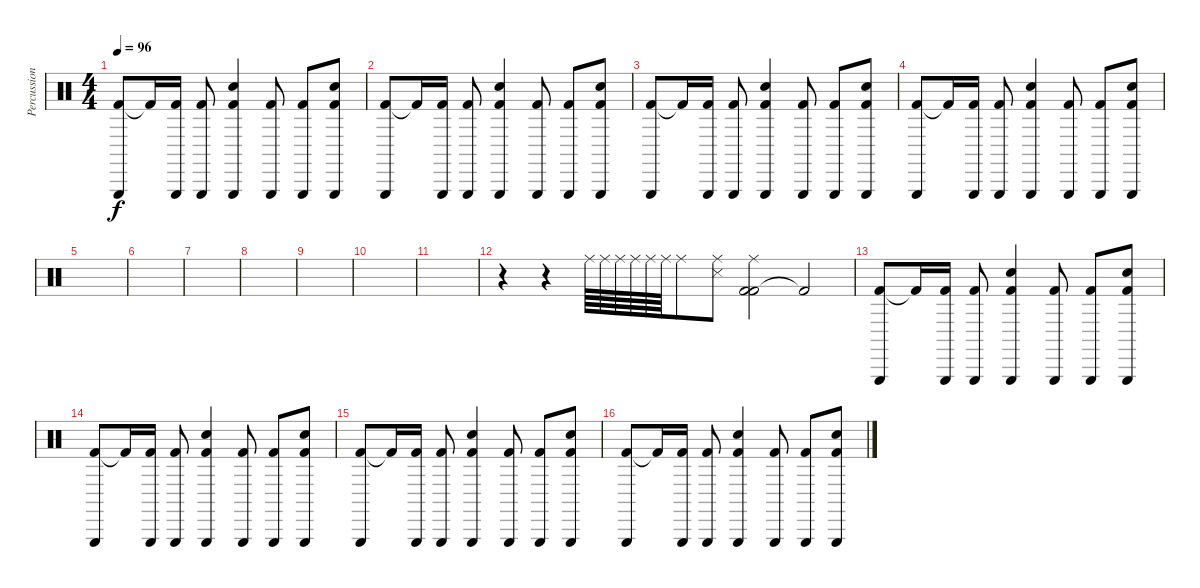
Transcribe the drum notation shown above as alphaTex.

\track ("Percussion 2" "Percussion") {instrument percussion}
\staff {score}
\articulation defaults
\ts (4 4)
\tempo 96
\clef neutral
\ks c
("Kick (hit) 2" "Triangle (hit)").8{dy f} "Kick (hit) 2"{t}.16 ("Kick (hit) 2" "Triangle (hit)").16 ("Kick (hit) 2" "Triangle (hit)").8 ("Kick (hit) 2" "Snare (hit) 2" "Triangle (hit)").4 ("Kick (hit) 2" "Triangle (hit)").8 ("Kick (hit) 2" "Triangle (hit)").8 ("Kick (hit) 2" "Snare (hit) 2" "Triangle (hit)").8 |
("Kick (hit) 2" "Triangle (hit)").8 "Kick (hit) 2"{t}.16 ("Kick (hit) 2" "Triangle (hit)").16 ("Kick (hit) 2" "Triangle (hit)").8 ("Kick (hit) 2" "Snare (hit) 2" "Triangle (hit)").4 ("Kick (hit) 2" "Triangle (hit)").8 ("Kick (hit) 2" "Triangle (hit)").8 ("Kick (hit) 2" "Snare (hit) 2" "Triangle (hit)").8 |
("Kick (hit) 2" "Triangle (hit)").8 "Kick (hit) 2"{t}.16 ("Kick (hit) 2" "Triangle (hit)").16 ("Kick (hit) 2" "Triangle (hit)").8 ("Kick (hit) 2" "Snare (hit) 2" "Triangle (hit)").4 ("Kick (hit) 2" "Triangle (hit)").8 ("Kick (hit) 2" "Triangle (hit)").8 ("Kick (hit) 2" "Snare (hit) 2" "Triangle (hit)").8 |
("Kick (hit) 2" "Triangle (hit)").8 "Kick (hit) 2"{t}.16 ("Kick (hit) 2" "Triangle (hit)").16 ("Kick (hit) 2" "Triangle (hit)").8 ("Kick (hit) 2" "Snare (hit) 2" "Triangle (hit)").4 ("Kick (hit) 2" "Triangle (hit)").8 ("Kick (hit) 2" "Triangle (hit)").8 ("Kick (hit) 2" "Snare (hit) 2" "Triangle (hit)").8 |
|
|
|
|
|
|
|
r.4 r.4 "Ride (middle)".64 "Ride (middle)".64 "Ride (middle)".64 "Ride (middle)".64 "Ride (middle)".64 "Ride (middle)".64 "Ride (middle)".8 ("Snare (side stick) 3" "Ride (middle)").8 ("Kick (hit) 2" "Kick (hit) 2" "Ride (middle)").2 "Kick (hit) 2"{t}.2 |
("Kick (hit) 2" "Triangle (hit)").8 "Kick (hit) 2"{t}.16 ("Kick (hit) 2" "Triangle (hit)").16 ("Kick (hit) 2" "Triangle (hit)").8 ("Kick (hit) 2" "Snare (hit) 2" "Triangle (hit)").4 ("Kick (hit) 2" "Triangle (hit)").8 ("Kick (hit) 2" "Triangle (hit)").8 ("Kick (hit) 2" "Snare (hit) 2" "Triangle (hit)").8 |
("Kick (hit) 2" "Triangle (hit)").8 "Kick (hit) 2"{t}.16 ("Kick (hit) 2" "Triangle (hit)").16 ("Kick (hit) 2" "Triangle (hit)").8 ("Kick (hit) 2" "Snare (hit) 2" "Triangle (hit)").4 ("Kick (hit) 2" "Triangle (hit)").8 ("Kick (hit) 2" "Triangle (hit)").8 ("Kick (hit) 2" "Snare (hit) 2" "Triangle (hit)").8 |
("Kick (hit) 2" "Triangle (hit)").8 "Kick (hit) 2"{t}.16 ("Kick (hit) 2" "Triangle (hit)").16 ("Kick (hit) 2" "Triangle (hit)").8 ("Kick (hit) 2" "Snare (hit) 2" "Triangle (hit)").4 ("Kick (hit) 2" "Triangle (hit)").8 ("Kick (hit) 2" "Triangle (hit)").8 ("Kick (hit) 2" "Snare (hit) 2" "Triangle (hit)").8 |
("Kick (hit) 2" "Triangle (hit)").8 "Kick (hit) 2"{t}.16 ("Kick (hit) 2" "Triangle (hit)").16 ("Kick (hit) 2" "Triangle (hit)").8 ("Kick (hit) 2" "Snare (hit) 2" "Triangle (hit)").4 ("Kick (hit) 2" "Triangle (hit)").8 ("Kick (hit) 2" "Triangle (hit)").8 ("Kick (hit) 2" "Snare (hit) 2" "Triangle (hit)").8
